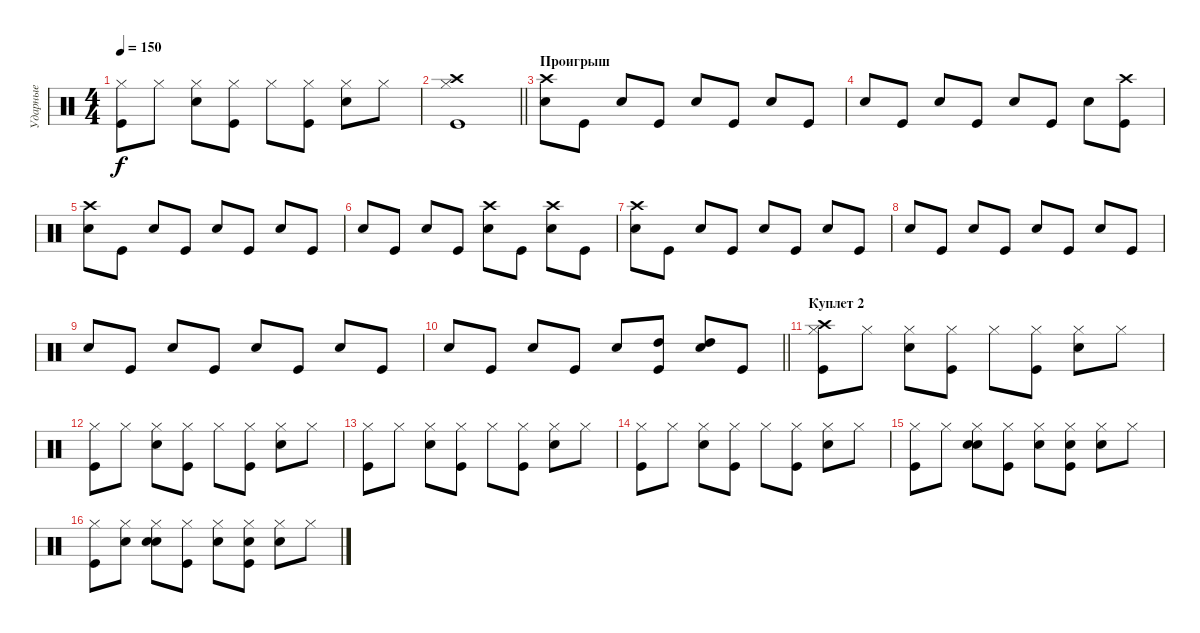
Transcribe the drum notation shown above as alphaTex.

\track ("Ударные" "Ударные") {instrument percussion}
\staff {score}
\articulation defaults
\ts (4 4)
\tempo 150
\clef neutral
\ks c
("Kick (hit)" "Hi-Hat (closed)").8{dy f} "Hi-Hat (closed)".8 ("Snare (hit) 2" "Hi-Hat (closed)").8 ("Kick (hit)" "Hi-Hat (closed)").8 "Hi-Hat (closed)".8 ("Kick (hit)" "Hi-Hat (closed)").8 ("Snare (hit) 2" "Hi-Hat (closed)").8 "Hi-Hat (closed)".8 |
\barLineRight lightlight
("Kick (hit)" "Hi-Hat (closed)" "Crash high (hit)").1 |
\section ("" "Проигрыш")
("Snare (hit) 2" "Crash high (hit)").8 "Kick (hit)".8 "Snare (hit) 2".8 "Kick (hit)".8 "Snare (hit) 2".8 "Kick (hit)".8 "Snare (hit) 2".8 "Kick (hit)".8 |
"Snare (hit) 2".8 "Kick (hit)".8 "Snare (hit) 2".8 "Kick (hit)".8 "Snare (hit) 2".8 "Kick (hit)".8 "Snare (hit) 2".8 ("Kick (hit)" "Crash high (hit)").8 |
("Snare (hit) 2" "Crash high (hit)").8 "Kick (hit)".8 "Snare (hit) 2".8 "Kick (hit)".8 "Snare (hit) 2".8 "Kick (hit)".8 "Snare (hit) 2".8 "Kick (hit)".8 |
"Snare (hit) 2".8 "Kick (hit)".8 "Snare (hit) 2".8 "Kick (hit)".8 ("Snare (hit) 2" "Crash high (hit)").8 "Kick (hit)".8 ("Snare (hit) 2" "Crash high (hit)").8 "Kick (hit)".8 |
("Snare (hit) 2" "Crash high (hit)").8 "Kick (hit)".8 "Snare (hit) 2".8 "Kick (hit)".8 "Snare (hit) 2".8 "Kick (hit)".8 "Snare (hit) 2".8 "Kick (hit)".8 |
"Snare (hit) 2".8 "Kick (hit)".8 "Snare (hit) 2".8 "Kick (hit)".8 "Snare (hit) 2".8 "Kick (hit)".8 "Snare (hit) 2".8 "Kick (hit)".8 |
"Snare (hit) 2".8 "Kick (hit)".8 "Snare (hit) 2".8 "Kick (hit)".8 "Snare (hit) 2".8 "Kick (hit)".8 "Snare (hit) 2".8 "Kick (hit)".8 |
\barLineRight lightlight "Snare (hit) 2".8 "Kick (hit)".8 "Snare (hit) 2".8 "Kick (hit)".8 "Snare (hit) 2".8
("Kick (hit)" "High Tom (hit)").8 ("Snare (hit) 2" "High Tom (hit)").8 "Kick (hit)".8 |
\section ("" "Куплет 2")
("Kick (hit)" "Hi-Hat (closed)" "Crash high (hit)").8 "Hi-Hat (closed)".8 ("Snare (hit) 2" "Hi-Hat (closed)").8 ("Kick (hit)" "Hi-Hat (closed)").8 "Hi-Hat (closed)".8 ("Kick (hit)" "Hi-Hat (closed)").8 ("Snare (hit) 2" "Hi-Hat (closed)").8 "Hi-Hat (closed)".8 |
("Kick (hit)" "Hi-Hat (closed)").8 "Hi-Hat (closed)".8 ("Snare (hit) 2" "Hi-Hat (closed)").8 ("Kick (hit)" "Hi-Hat (closed)").8 "Hi-Hat (closed)".8 ("Kick (hit)" "Hi-Hat (closed)").8 ("Snare (hit) 2" "Hi-Hat (closed)").8 "Hi-Hat (closed)".8 |
("Kick (hit)" "Hi-Hat (closed)").8 "Hi-Hat (closed)".8 ("Snare (hit) 2" "Hi-Hat (closed)").8 ("Kick (hit)" "Hi-Hat (closed)").8 "Hi-Hat (closed)".8 ("Kick (hit)" "Hi-Hat (closed)").8 ("Snare (hit) 2" "Hi-Hat (closed)").8 "Hi-Hat (closed)".8 |
("Kick (hit)" "Hi-Hat (closed)").8 "Hi-Hat (closed)".8 ("Snare (hit) 2" "Hi-Hat (closed)").8 ("Kick (hit)" "Hi-Hat (closed)").8 "Hi-Hat (closed)".8 ("Kick (hit)" "Hi-Hat (closed)").8 ("Snare (hit) 2" "Hi-Hat (closed)").8 "Hi-Hat (closed)".8 |
("Kick (hit)" "Hi-Hat (closed)").8 "Hi-Hat (closed)".8 ("Snare (hit) 2" "Hi-Hat (closed)" "Hand Clap (hit)").8 ("Kick (hit)" "Hi-Hat (closed)").8 ("Hi-Hat (closed)" "Hand Clap (hit)").8 ("Kick (hit)" "Hi-Hat (closed)" "Hand Clap (hit)").8 ("Snare (hit) 2" "Hi-Hat (closed)").8 "Hi-Hat (closed)".8 |
("Kick (hit)" "Hi-Hat (closed)").8 ("Hi-Hat (closed)" "Hand Clap (hit)").8 ("Snare (hit) 2" "Hi-Hat (closed)" "Hand Clap (hit)").8 ("Kick (hit)" "Hi-Hat (closed)").8 ("Hi-Hat (closed)" "Hand Clap (hit)").8 ("Kick (hit)" "Hi-Hat (closed)" "Hand Clap (hit)").8 ("Snare (hit) 2" "Hi-Hat (closed)").8 "Hi-Hat (closed)".8
